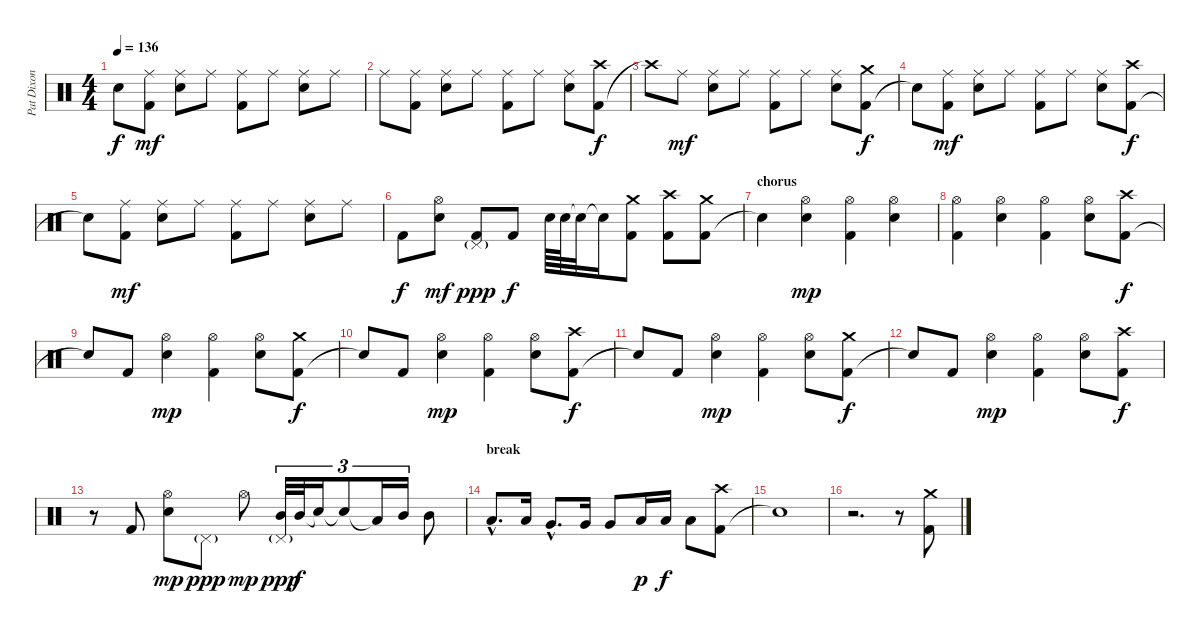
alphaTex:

\track ("Pat Dixon" "Pat Dixon") {instrument percussion}
\staff {score}
\articulation defaults
\ts (4 4)
\tempo 136
\clef neutral
\ks c "Snare (hit)"{t}.8{dy f}
("Kick (hit) 2" "Ride (middle)").8{dy mf} ("Ride (middle)" "Snare (hit) 2").8 "Ride (middle)".8 ("Kick (hit) 2" "Ride (middle)").8 "Ride (middle)".8 ("Ride (middle)" "Snare (hit) 2").8 "Ride (middle)".8 |
"Ride (middle)".8 ("Kick (hit) 2" "Ride (middle)").8 ("Ride (middle)" "Snare (hit) 2").8 "Ride (middle)".8 ("Kick (hit) 2" "Ride (middle)").8 "Ride (middle)".8 ("Ride (middle)" "Snare (hit) 2").8 ("Kick (hit) 2" "Crash high (hit)").8{dy f} |
"Crash high (hit)"{t}.8 "Ride (middle)".8{dy mf} ("Ride (middle)" "Snare (hit) 2").8 "Ride (middle)".8 ("Kick (hit) 2" "Ride (middle)").8 "Ride (middle)".8 ("Ride (middle)" "Snare (hit) 2").8 ("Kick (hit) 2" "Crash medium (hit)").8{dy f} |
"Snare (hit)"{t}.8 ("Kick (hit) 2" "Ride (middle)").8{dy mf} ("Ride (middle)" "Snare (hit) 2").8 "Ride (middle)".8 ("Kick (hit) 2" "Ride (middle)").8 "Ride (middle)".8 ("Ride (middle)" "Snare (hit) 2").8 ("Kick (hit) 2" "Crash high (hit)").8{dy f} |
"Snare (hit)"{t}.8 ("Kick (hit) 2" "Ride (middle)").8{dy mf} ("Ride (middle)" "Snare (hit) 2").8 "Ride (middle)".8 ("Kick (hit) 2" "Ride (middle)").8 "Ride (middle)".8 ("Ride (middle)" "Snare (hit) 2").8 "Ride (middle)".8 |
"Kick (hit) 2".8{dy f} ("Hi-Hat (open)" "Snare (hit) 2").8{dy mf} ("Kick (hit) 2" "Pedal Hi-Hat (hit)"{g}).8{dy ppp} "Kick (hit) 2".8{dy f} "Snare (hit) 2".64 "Snare (hit) 2".64 "Snare (hit)"{t}.32 "Snare (hit)"{t}.16 ("Kick (hit) 2" "Crash medium (hit)").8 ("Kick (hit) 2" "Crash high (hit)").8 ("Kick (hit) 2" "Crash medium (hit)").8 |
\section ("" "chorus")
"Snare (hit)"{t}.4 ("Hi-Hat (open)" "Snare (hit) 2").4{dy mp} ("Kick (hit) 2" "Hi-Hat (open)").4 ("Hi-Hat (open)" "Snare (hit) 2").4 |
("Kick (hit) 2" "Hi-Hat (open)").4 ("Hi-Hat (open)" "Snare (hit) 2").4 ("Kick (hit) 2" "Hi-Hat (open)").4 ("Hi-Hat (open)" "Snare (hit) 2").8 ("Kick (hit) 2" "Crash high (hit)").8{dy f} |
"Snare (hit)"{t}.8 "Kick (hit) 2".8 ("Hi-Hat (open)" "Snare (hit) 2").4{dy mp} ("Kick (hit) 2" "Hi-Hat (open)").4 ("Hi-Hat (open)" "Snare (hit) 2").8 ("Kick (hit) 2" "Crash medium (hit)").8{dy f} |
"Snare (hit)"{t}.8 "Kick (hit) 2".8 ("Hi-Hat (open)" "Snare (hit) 2").4{dy mp} ("Kick (hit) 2" "Hi-Hat (open)").4 ("Hi-Hat (open)" "Snare (hit) 2").8 ("Kick (hit) 2" "Crash high (hit)").8{dy f} |
"Snare (hit)"{t}.8 "Kick (hit) 2".8 ("Hi-Hat (open)" "Snare (hit) 2").4{dy mp} ("Kick (hit) 2" "Hi-Hat (open)").4 ("Hi-Hat (open)" "Snare (hit) 2").8 ("Kick (hit) 2" "Crash medium (hit)").8{dy f} |
"Snare (hit)"{t}.8 "Kick (hit) 2".8 ("Hi-Hat (open)" "Snare (hit) 2").4{dy mp} ("Kick (hit) 2" "Hi-Hat (open)").4 ("Hi-Hat (open)" "Snare (hit) 2").8 ("Kick (hit) 2" "Crash high (hit)").8{dy f} |
r.8 "Kick (hit) 2".8 ("Hi-Hat (open)" "Snare (hit) 2").8{dy mp} "Pedal Hi-Hat (hit)"{g}.8{dy ppp} "Hi-Hat (open)".8{dy mp} ("Pedal Hi-Hat (hit)"{g} "Mid Tom (hit)").32{tu (3 2) dy ppp} "Mid Tom (hit)".32{tu (3 2) dy f} "Snare (hit)"{t}.16{tu (3 2)} "Snare (hit)"{t}.8{tu (3 2)} "Low Tom (hit)"{t}.16{tu (3 2)} "Mid Tom (hit)".16{tu (3 2)} "Mid Tom (hit)".8 |
\section ("" "break")
"Low Tom (hit)"{hac}.8{d} "Low Tom (hit)".16 "Very Low Tom (hit)"{hac}.8{d} "Very Low Tom (hit)".16 "Very Low Tom (hit)".8 "Low Floor Tom (hit)".16{dy p} "Low Floor Tom (hit)".16{dy f} "Low Floor Tom (hit)".8 ("Kick (hit) 2" "Crash high (hit)").8 |
"Snare (hit)"{t}.1 |
r.2{d} r.8 ("Kick (hit) 2" "Crash medium (hit)").8
